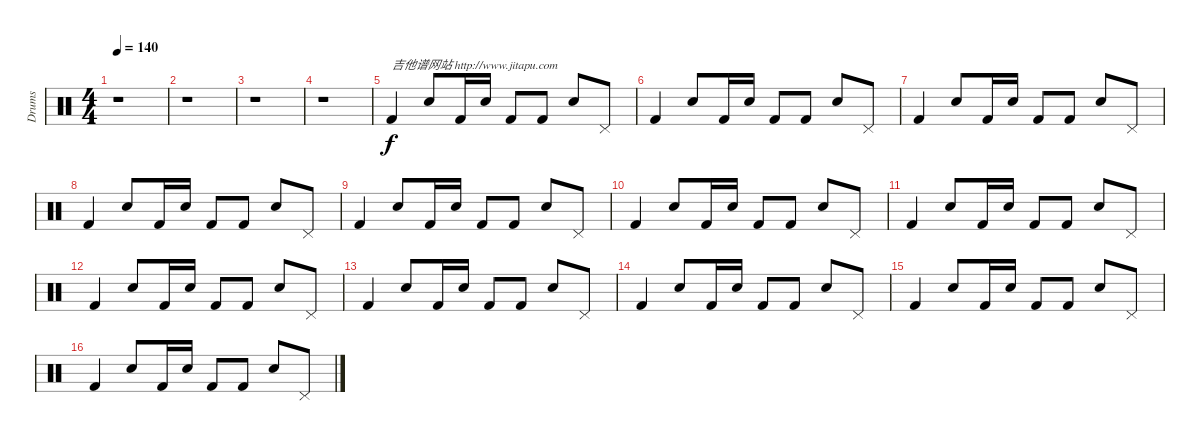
\track ("Drums" "Drums") {instrument percussion}
\staff {score}
\articulation defaults
\ts (4 4)
\tempo 140
\clef neutral
\ks c
r.1{dy f} |
r.1 |
r.1 |
r.1 |
"Kick (hit) 2".4{txt "吉他谱网站 http://www.jitapu.com"} "Snare (hit) 2".8 "Kick (hit) 2".16 "Snare (hit) 2".16 "Kick (hit) 2".8 "Kick (hit) 2".8 "Snare (hit) 2".8 "Pedal Hi-Hat (hit)".8 |
"Kick (hit) 2".4 "Snare (hit) 2".8 "Kick (hit) 2".16 "Snare (hit) 2".16 "Kick (hit) 2".8 "Kick (hit) 2".8 "Snare (hit) 2".8 "Pedal Hi-Hat (hit)".8 |
"Kick (hit) 2".4 "Snare (hit) 2".8 "Kick (hit) 2".16 "Snare (hit) 2".16 "Kick (hit) 2".8 "Kick (hit) 2".8 "Snare (hit) 2".8 "Pedal Hi-Hat (hit)".8 |
"Kick (hit) 2".4 "Snare (hit) 2".8 "Kick (hit) 2".16 "Snare (hit) 2".16 "Kick (hit) 2".8 "Kick (hit) 2".8 "Snare (hit) 2".8 "Pedal Hi-Hat (hit)".8 |
"Kick (hit) 2".4 "Snare (hit) 2".8 "Kick (hit) 2".16 "Snare (hit) 2".16 "Kick (hit) 2".8 "Kick (hit) 2".8 "Snare (hit) 2".8 "Pedal Hi-Hat (hit)".8 |
"Kick (hit) 2".4 "Snare (hit) 2".8 "Kick (hit) 2".16 "Snare (hit) 2".16 "Kick (hit) 2".8 "Kick (hit) 2".8 "Snare (hit) 2".8 "Pedal Hi-Hat (hit)".8 |
"Kick (hit) 2".4 "Snare (hit) 2".8 "Kick (hit) 2".16 "Snare (hit) 2".16 "Kick (hit) 2".8 "Kick (hit) 2".8 "Snare (hit) 2".8 "Pedal Hi-Hat (hit)".8 |
"Kick (hit) 2".4 "Snare (hit) 2".8 "Kick (hit) 2".16 "Snare (hit) 2".16 "Kick (hit) 2".8 "Kick (hit) 2".8 "Snare (hit) 2".8 "Pedal Hi-Hat (hit)".8 |
"Kick (hit) 2".4 "Snare (hit) 2".8 "Kick (hit) 2".16 "Snare (hit) 2".16 "Kick (hit) 2".8 "Kick (hit) 2".8 "Snare (hit) 2".8 "Pedal Hi-Hat (hit)".8 |
"Kick (hit) 2".4 "Snare (hit) 2".8 "Kick (hit) 2".16 "Snare (hit) 2".16 "Kick (hit) 2".8 "Kick (hit) 2".8 "Snare (hit) 2".8 "Pedal Hi-Hat (hit)".8 |
"Kick (hit) 2".4 "Snare (hit) 2".8 "Kick (hit) 2".16 "Snare (hit) 2".16 "Kick (hit) 2".8 "Kick (hit) 2".8 "Snare (hit) 2".8 "Pedal Hi-Hat (hit)".8 |
"Kick (hit) 2".4 "Snare (hit) 2".8 "Kick (hit) 2".16 "Snare (hit) 2".16 "Kick (hit) 2".8 "Kick (hit) 2".8 "Snare (hit) 2".8 "Pedal Hi-Hat (hit)".8
